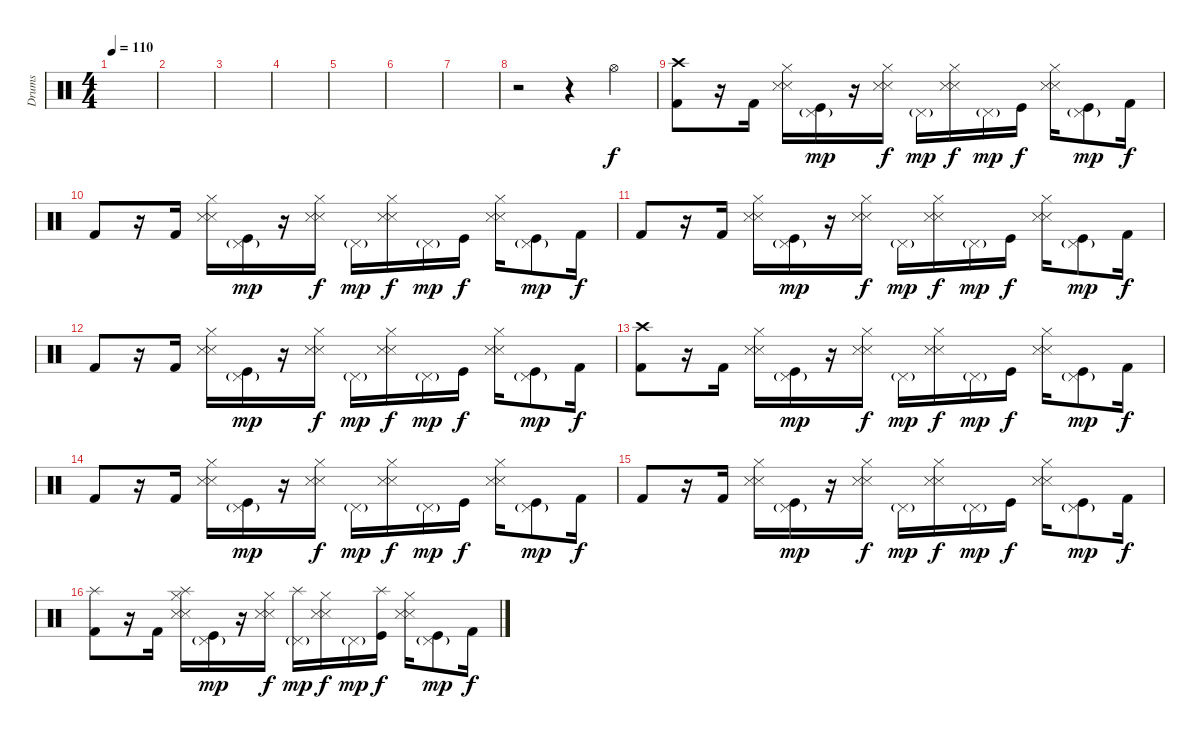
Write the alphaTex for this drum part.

\track ("Drums" "Drums") {instrument percussion}
\staff {score}
\articulation defaults
\ts (4 4)
\tempo 110
\clef neutral
\ks c
|
|
|
|
|
|
|
r.2 r.4 "Hi-Hat (open)".4 |
("Crash high (hit)" "Kick (hit) 2").8 r.16 "Kick (hit) 2".16 ("Hi-Hat (closed)" "Metronome (hit)" "Metronome (hit)").16 ("Pedal Hi-Hat (hit)"{g} "Kick (hit)").16{dy mp} r.16 ("Hi-Hat (closed)" "Metronome (hit)" "Metronome (hit)").16{dy f} "Pedal Hi-Hat (hit)"{g}.16{dy mp} ("Hi-Hat (closed)" "Metronome (hit)" "Metronome (hit)").16{dy f} "Pedal Hi-Hat (hit)"{g}.16{dy mp} "Kick (hit)".16{dy f} ("Hi-Hat (closed)" "Metronome (hit)" "Metronome (hit)").16 ("Pedal Hi-Hat (hit)"{g} "Kick (hit)").8{dy mp} "Kick (hit) 2".16{dy f} |
"Kick (hit) 2".8 r.16 "Kick (hit) 2".16 ("Hi-Hat (closed)" "Metronome (hit)" "Metronome (hit)").16 ("Pedal Hi-Hat (hit)"{g} "Kick (hit)").16{dy mp} r.16 ("Hi-Hat (closed)" "Metronome (hit)" "Metronome (hit)").16{dy f} "Pedal Hi-Hat (hit)"{g}.16{dy mp} ("Hi-Hat (closed)" "Metronome (hit)" "Metronome (hit)").16{dy f} "Pedal Hi-Hat (hit)"{g}.16{dy mp} "Kick (hit)".16{dy f} ("Hi-Hat (closed)" "Metronome (hit)" "Metronome (hit)").16 ("Pedal Hi-Hat (hit)"{g} "Kick (hit)").8{dy mp} "Kick (hit) 2".16{dy f} |
"Kick (hit) 2".8 r.16 "Kick (hit) 2".16 ("Hi-Hat (closed)" "Metronome (hit)" "Metronome (hit)").16 ("Pedal Hi-Hat (hit)"{g} "Kick (hit)").16{dy mp} r.16 ("Hi-Hat (closed)" "Metronome (hit)" "Metronome (hit)").16{dy f} "Pedal Hi-Hat (hit)"{g}.16{dy mp} ("Hi-Hat (closed)" "Metronome (hit)" "Metronome (hit)").16{dy f} "Pedal Hi-Hat (hit)"{g}.16{dy mp} "Kick (hit)".16{dy f} ("Hi-Hat (closed)" "Metronome (hit)" "Metronome (hit)").16 ("Pedal Hi-Hat (hit)"{g} "Kick (hit)").8{dy mp} "Kick (hit) 2".16{dy f} |
"Kick (hit) 2".8 r.16 "Kick (hit) 2".16 ("Hi-Hat (closed)" "Metronome (hit)" "Metronome (hit)").16 ("Pedal Hi-Hat (hit)"{g} "Kick (hit)").16{dy mp} r.16 ("Hi-Hat (closed)" "Metronome (hit)" "Metronome (hit)").16{dy f} "Pedal Hi-Hat (hit)"{g}.16{dy mp} ("Hi-Hat (closed)" "Metronome (hit)" "Metronome (hit)").16{dy f} "Pedal Hi-Hat (hit)"{g}.16{dy mp} "Kick (hit)".16{dy f} ("Hi-Hat (closed)" "Metronome (hit)" "Metronome (hit)").16 ("Pedal Hi-Hat (hit)"{g} "Kick (hit)").8{dy mp} "Kick (hit) 2".16{dy f} |
("Crash high (hit)" "Kick (hit) 2").8 r.16 "Kick (hit) 2".16 ("Hi-Hat (closed)" "Metronome (hit)" "Metronome (hit)").16 ("Pedal Hi-Hat (hit)"{g} "Kick (hit)").16{dy mp} r.16 ("Hi-Hat (closed)" "Metronome (hit)" "Metronome (hit)").16{dy f} "Pedal Hi-Hat (hit)"{g}.16{dy mp} ("Hi-Hat (closed)" "Metronome (hit)" "Metronome (hit)").16{dy f} "Pedal Hi-Hat (hit)"{g}.16{dy mp} "Kick (hit)".16{dy f} ("Hi-Hat (closed)" "Metronome (hit)" "Metronome (hit)").16 ("Pedal Hi-Hat (hit)"{g} "Kick (hit)").8{dy mp} "Kick (hit) 2".16{dy f} |
"Kick (hit) 2".8 r.16 "Kick (hit) 2".16 ("Hi-Hat (closed)" "Metronome (hit)" "Metronome (hit)").16 ("Pedal Hi-Hat (hit)"{g} "Kick (hit)").16{dy mp} r.16 ("Hi-Hat (closed)" "Metronome (hit)" "Metronome (hit)").16{dy f} "Pedal Hi-Hat (hit)"{g}.16{dy mp} ("Hi-Hat (closed)" "Metronome (hit)" "Metronome (hit)").16{dy f} "Pedal Hi-Hat (hit)"{g}.16{dy mp} "Kick (hit)".16{dy f} ("Hi-Hat (closed)" "Metronome (hit)" "Metronome (hit)").16 ("Pedal Hi-Hat (hit)"{g} "Kick (hit)").8{dy mp} "Kick (hit) 2".16{dy f} |
"Kick (hit) 2".8 r.16 "Kick (hit) 2".16 ("Hi-Hat (closed)" "Metronome (hit)" "Metronome (hit)").16 ("Pedal Hi-Hat (hit)"{g} "Kick (hit)").16{dy mp} r.16 ("Hi-Hat (closed)" "Metronome (hit)" "Metronome (hit)").16{dy f} "Pedal Hi-Hat (hit)"{g}.16{dy mp} ("Hi-Hat (closed)" "Metronome (hit)" "Metronome (hit)").16{dy f} "Pedal Hi-Hat (hit)"{g}.16{dy mp} "Kick (hit)".16{dy f} ("Hi-Hat (closed)" "Metronome (hit)" "Metronome (hit)").16 ("Pedal Hi-Hat (hit)"{g} "Kick (hit)").8{dy mp} "Kick (hit) 2".16{dy f} |
("Splash (hit)" "Kick (hit) 2").8 r.16 "Kick (hit) 2".16 ("Hi-Hat (closed)" "Splash (hit)" "Metronome (hit)" "Metronome (hit)").16 ("Pedal Hi-Hat (hit)"{g} "Kick (hit)").16{dy mp} r.16 ("Hi-Hat (closed)" "Metronome (hit)" "Metronome (hit)").16{dy f} ("Pedal Hi-Hat (hit)"{g} "Splash (hit)").16{dy mp} ("Hi-Hat (closed)" "Metronome (hit)" "Metronome (hit)").16{dy f} "Pedal Hi-Hat (hit)"{g}.16{dy mp} ("Splash (hit)" "Kick (hit)").16{dy f} ("Hi-Hat (closed)" "Metronome (hit)" "Metronome (hit)").16 ("Pedal Hi-Hat (hit)"{g} "Kick (hit)").8{dy mp} "Kick (hit) 2".16{dy f}
